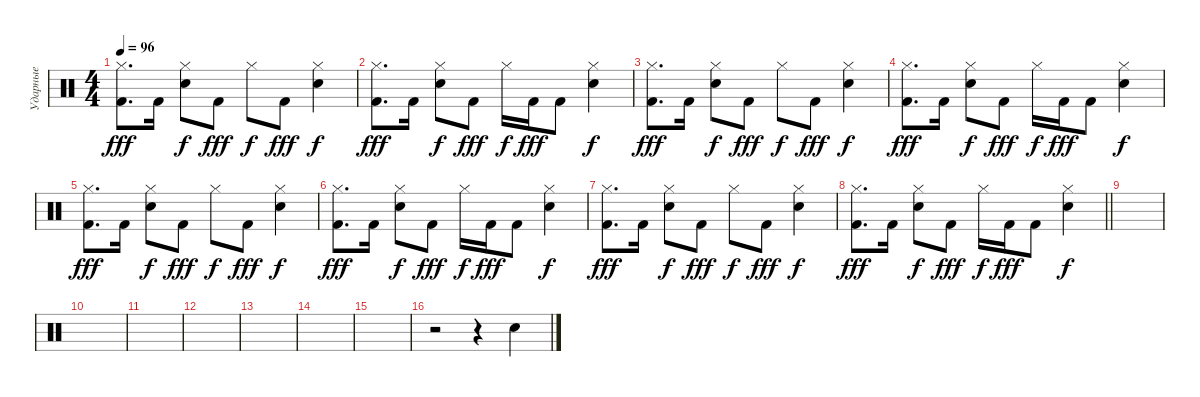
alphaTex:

\track ("Ударные" "Ударные") {instrument percussion}
\staff {score}
\articulation defaults
\ts (4 4)
\tempo 96
\clef neutral
\ks aminor
("Hi-Hat (closed)" "Kick (hit) 2").8{d dy fff} "Kick (hit) 2".16 ("Hi-Hat (closed)" "Snare (hit) 2").8{dy f} "Kick (hit) 2".8{dy fff} "Hi-Hat (closed)".8{dy f} "Kick (hit) 2".8{dy fff} ("Hi-Hat (closed)" "Snare (hit) 2").4{dy f} |
("Hi-Hat (closed)" "Kick (hit) 2").8{d dy fff} "Kick (hit) 2".16 ("Hi-Hat (closed)" "Snare (hit) 2").8{dy f} "Kick (hit) 2".8{dy fff} "Hi-Hat (closed)".16{dy f} "Kick (hit) 2".16{dy fff} "Kick (hit) 2".8 ("Hi-Hat (closed)" "Snare (hit) 2").4{dy f} |
("Hi-Hat (closed)" "Kick (hit) 2").8{d dy fff} "Kick (hit) 2".16 ("Hi-Hat (closed)" "Snare (hit) 2").8{dy f} "Kick (hit) 2".8{dy fff} "Hi-Hat (closed)".8{dy f} "Kick (hit) 2".8{dy fff} ("Hi-Hat (closed)" "Snare (hit) 2").4{dy f} |
("Hi-Hat (closed)" "Kick (hit) 2").8{d dy fff} "Kick (hit) 2".16 ("Hi-Hat (closed)" "Snare (hit) 2").8{dy f} "Kick (hit) 2".8{dy fff} "Hi-Hat (closed)".16{dy f} "Kick (hit) 2".16{dy fff} "Kick (hit) 2".8 ("Hi-Hat (closed)" "Snare (hit) 2").4{dy f} |
("Hi-Hat (closed)" "Kick (hit) 2").8{d dy fff} "Kick (hit) 2".16 ("Hi-Hat (closed)" "Snare (hit) 2").8{dy f} "Kick (hit) 2".8{dy fff} "Hi-Hat (closed)".8{dy f} "Kick (hit) 2".8{dy fff} ("Hi-Hat (closed)" "Snare (hit) 2").4{dy f} |
("Hi-Hat (closed)" "Kick (hit) 2").8{d dy fff} "Kick (hit) 2".16 ("Hi-Hat (closed)" "Snare (hit) 2").8{dy f} "Kick (hit) 2".8{dy fff} "Hi-Hat (closed)".16{dy f} "Kick (hit) 2".16{dy fff} "Kick (hit) 2".8 ("Hi-Hat (closed)" "Snare (hit) 2").4{dy f} |
("Hi-Hat (closed)" "Kick (hit) 2").8{d dy fff} "Kick (hit) 2".16 ("Hi-Hat (closed)" "Snare (hit) 2").8{dy f} "Kick (hit) 2".8{dy fff} "Hi-Hat (closed)".8{dy f} "Kick (hit) 2".8{dy fff} ("Hi-Hat (closed)" "Snare (hit) 2").4{dy f} |
\barLineRight lightlight
("Hi-Hat (closed)" "Kick (hit) 2").8{d dy fff} "Kick (hit) 2".16 ("Hi-Hat (closed)" "Snare (hit) 2").8{dy f} "Kick (hit) 2".8{dy fff} "Hi-Hat (closed)".16{dy f} "Kick (hit) 2".16{dy fff} "Kick (hit) 2".8 ("Hi-Hat (closed)" "Snare (hit) 2").4{dy f} |
\section ("" "")
|
|
|
|
|
|
|
r.2 r.4 "Snare (hit) 2".4
